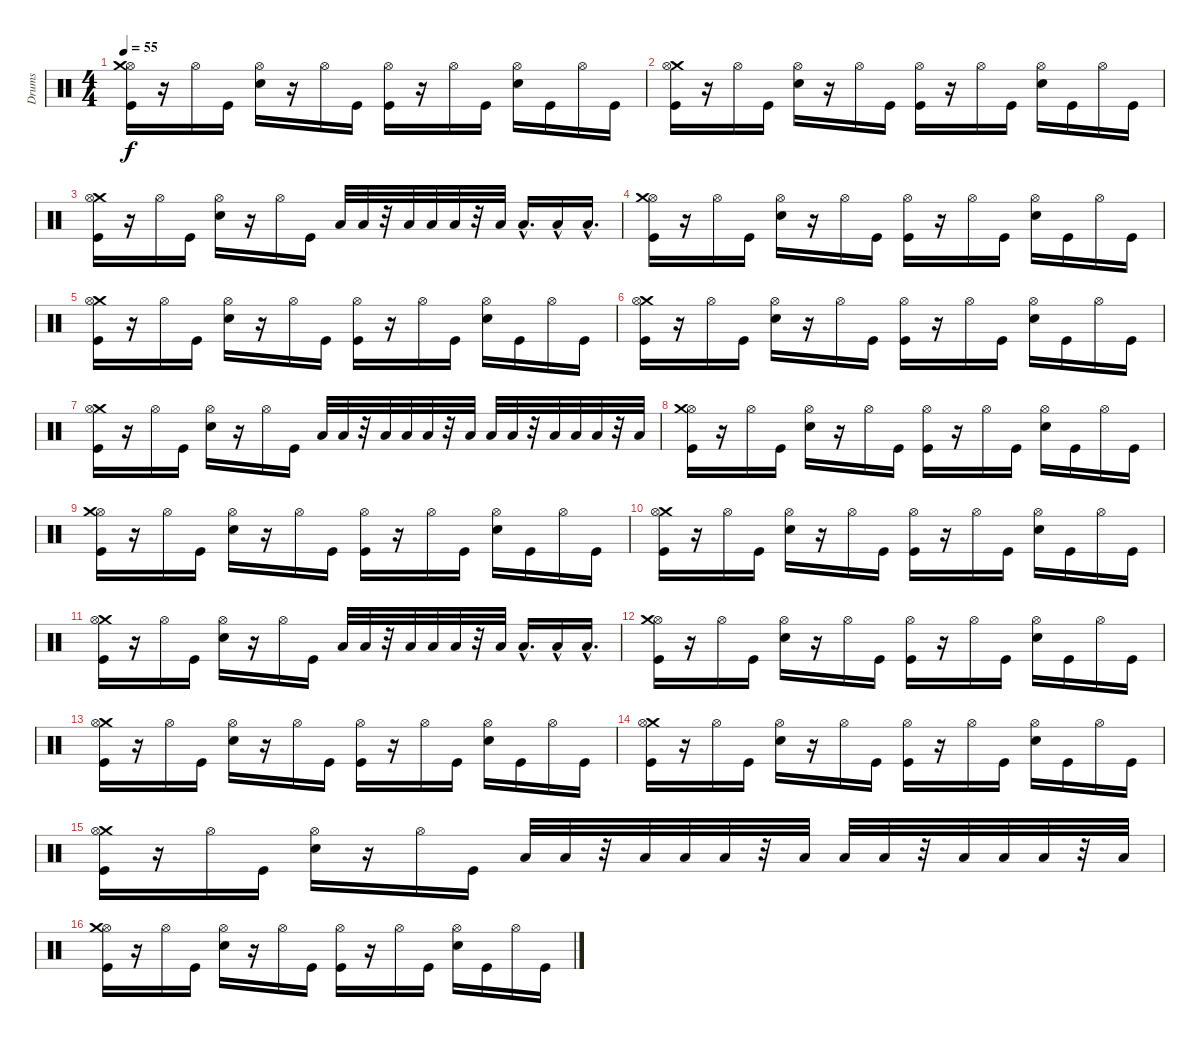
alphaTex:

\track ("Drums" "Drums") {instrument percussion}
\staff {score}
\articulation defaults
\ts (4 4)
\tempo 55
\clef neutral
\ks c
("Hi-Hat (open)" "Crash medium (hit)" "Kick (hit)").16{dy f} r.16 "Hi-Hat (open)".16 "Kick (hit)".16 ("Electric Snare (hit)" "Hi-Hat (open)").16 r.16 "Hi-Hat (open)".16 "Kick (hit)".16 ("Hi-Hat (open)" "Kick (hit)").16 r.16 "Hi-Hat (open)".16 "Kick (hit)".16 ("Hi-Hat (open)" "Electric Snare (hit)").16 "Kick (hit)".16 "Hi-Hat (open)".16 "Kick (hit)".16 |
("Crash medium (hit)" "Hi-Hat (open)" "Kick (hit)").16 r.16 "Hi-Hat (open)".16 "Kick (hit)".16 ("Electric Snare (hit)" "Hi-Hat (open)").16 r.16 "Hi-Hat (open)".16 "Kick (hit)".16 ("Kick (hit)" "Hi-Hat (open)").16 r.16 "Hi-Hat (open)".16 "Kick (hit)".16 ("Electric Snare (hit)" "Hi-Hat (open)").16 "Kick (hit)".16 "Hi-Hat (open)".16 "Kick (hit)".16 |
("Kick (hit)" "Crash medium (hit)" "Hi-Hat (open)").16 r.16 "Hi-Hat (open)".16 "Kick (hit)".16 ("Electric Snare (hit)" "Hi-Hat (open)").16 r.16 "Hi-Hat (open)".16 "Kick (hit)".16 "Low Tom (hit)".32 "Low Tom (hit)".32 r.32 "Low Tom (hit)".32 "Low Tom (hit)".32 "Low Tom (hit)".32 r.32 "Low Tom (hit)".32 "Low Tom (hit)"{hac}.16{d} "Low Tom (hit)"{hac}.16 "Low Tom (hit)"{hac}.16{d} |
("Kick (hit)" "Hi-Hat (open)" "Crash medium (hit)").16 r.16 "Hi-Hat (open)".16 "Kick (hit)".16 ("Hi-Hat (open)" "Electric Snare (hit)").16 r.16 "Hi-Hat (open)".16 "Kick (hit)".16 ("Hi-Hat (open)" "Kick (hit)").16 r.16 "Hi-Hat (open)".16 "Kick (hit)".16 ("Electric Snare (hit)" "Hi-Hat (open)").16 "Kick (hit)".16 "Hi-Hat (open)".16 "Kick (hit)".16 |
("Crash medium (hit)" "Hi-Hat (open)" "Kick (hit)").16 r.16 "Hi-Hat (open)".16 "Kick (hit)".16 ("Electric Snare (hit)" "Hi-Hat (open)").16 r.16 "Hi-Hat (open)".16 "Kick (hit)".16 ("Kick (hit)" "Hi-Hat (open)").16 r.16 "Hi-Hat (open)".16 "Kick (hit)".16 ("Hi-Hat (open)" "Electric Snare (hit)").16 "Kick (hit)".16 "Hi-Hat (open)".16 "Kick (hit)".16 |
("Crash medium (hit)" "Hi-Hat (open)" "Kick (hit)").16 r.16 "Hi-Hat (open)".16 "Kick (hit)".16 ("Hi-Hat (open)" "Electric Snare (hit)").16 r.16 "Hi-Hat (open)".16 "Kick (hit)".16 ("Hi-Hat (open)" "Kick (hit)").16 r.16 "Hi-Hat (open)".16 "Kick (hit)".16 ("Electric Snare (hit)" "Hi-Hat (open)").16 "Kick (hit)".16 "Hi-Hat (open)".16 "Kick (hit)".16 |
("Crash medium (hit)" "Kick (hit)" "Hi-Hat (open)").16 r.16 "Hi-Hat (open)".16 "Kick (hit)".16 ("Hi-Hat (open)" "Electric Snare (hit)").16 r.16 "Hi-Hat (open)".16 "Kick (hit)".16 "Low Floor Tom (hit)".32 "Low Tom (hit)".32 r.32 "Low Tom (hit)".32 "Low Tom (hit)".32 "Low Tom (hit)".32 r.32 "Low Tom (hit)".32 "Low Floor Tom (hit)".32 "Low Tom (hit)".32 r.32 "Low Tom (hit)".32 "Low Tom (hit)".32 "Low Tom (hit)".32 r.32 "Low Tom (hit)".32 |
("Kick (hit)" "Hi-Hat (open)" "Crash medium (hit)").16 r.16 "Hi-Hat (open)".16 "Kick (hit)".16 ("Hi-Hat (open)" "Electric Snare (hit)").16 r.16 "Hi-Hat (open)".16 "Kick (hit)".16 ("Kick (hit)" "Hi-Hat (open)").16 r.16 "Hi-Hat (open)".16 "Kick (hit)".16 ("Electric Snare (hit)" "Hi-Hat (open)").16 "Kick (hit)".16 "Hi-Hat (open)".16 "Kick (hit)".16 |
("Hi-Hat (open)" "Crash medium (hit)" "Kick (hit)").16 r.16 "Hi-Hat (open)".16 "Kick (hit)".16 ("Electric Snare (hit)" "Hi-Hat (open)").16 r.16 "Hi-Hat (open)".16 "Kick (hit)".16 ("Hi-Hat (open)" "Kick (hit)").16 r.16 "Hi-Hat (open)".16 "Kick (hit)".16 ("Hi-Hat (open)" "Electric Snare (hit)").16 "Kick (hit)".16 "Hi-Hat (open)".16 "Kick (hit)".16 |
("Crash medium (hit)" "Hi-Hat (open)" "Kick (hit)").16 r.16 "Hi-Hat (open)".16 "Kick (hit)".16 ("Electric Snare (hit)" "Hi-Hat (open)").16 r.16 "Hi-Hat (open)".16 "Kick (hit)".16 ("Kick (hit)" "Hi-Hat (open)").16 r.16 "Hi-Hat (open)".16 "Kick (hit)".16 ("Electric Snare (hit)" "Hi-Hat (open)").16 "Kick (hit)".16 "Hi-Hat (open)".16 "Kick (hit)".16 |
("Kick (hit)" "Crash medium (hit)" "Hi-Hat (open)").16 r.16 "Hi-Hat (open)".16 "Kick (hit)".16 ("Electric Snare (hit)" "Hi-Hat (open)").16 r.16 "Hi-Hat (open)".16 "Kick (hit)".16 "Low Tom (hit)".32 "Low Tom (hit)".32 r.32 "Low Tom (hit)".32 "Low Tom (hit)".32 "Low Tom (hit)".32 r.32 "Low Tom (hit)".32 "Low Tom (hit)"{hac}.16{d} "Low Tom (hit)"{hac}.16 "Low Tom (hit)"{hac}.16{d} |
("Kick (hit)" "Hi-Hat (open)" "Crash medium (hit)").16 r.16 "Hi-Hat (open)".16 "Kick (hit)".16 ("Hi-Hat (open)" "Electric Snare (hit)").16 r.16 "Hi-Hat (open)".16 "Kick (hit)".16 ("Hi-Hat (open)" "Kick (hit)").16 r.16 "Hi-Hat (open)".16 "Kick (hit)".16 ("Electric Snare (hit)" "Hi-Hat (open)").16 "Kick (hit)".16 "Hi-Hat (open)".16 "Kick (hit)".16 |
("Crash medium (hit)" "Hi-Hat (open)" "Kick (hit)").16 r.16 "Hi-Hat (open)".16 "Kick (hit)".16 ("Electric Snare (hit)" "Hi-Hat (open)").16 r.16 "Hi-Hat (open)".16 "Kick (hit)".16 ("Kick (hit)" "Hi-Hat (open)").16 r.16 "Hi-Hat (open)".16 "Kick (hit)".16 ("Hi-Hat (open)" "Electric Snare (hit)").16 "Kick (hit)".16 "Hi-Hat (open)".16 "Kick (hit)".16 |
("Crash medium (hit)" "Hi-Hat (open)" "Kick (hit)").16 r.16 "Hi-Hat (open)".16 "Kick (hit)".16 ("Hi-Hat (open)" "Electric Snare (hit)").16 r.16 "Hi-Hat (open)".16 "Kick (hit)".16 ("Hi-Hat (open)" "Kick (hit)").16 r.16 "Hi-Hat (open)".16 "Kick (hit)".16 ("Electric Snare (hit)" "Hi-Hat (open)").16 "Kick (hit)".16 "Hi-Hat (open)".16 "Kick (hit)".16 |
("Crash medium (hit)" "Kick (hit)" "Hi-Hat (open)").16 r.16 "Hi-Hat (open)".16 "Kick (hit)".16 ("Hi-Hat (open)" "Electric Snare (hit)").16 r.16 "Hi-Hat (open)".16 "Kick (hit)".16 "Low Floor Tom (hit)".32 "Low Tom (hit)".32 r.32 "Low Tom (hit)".32 "Low Tom (hit)".32 "Low Tom (hit)".32 r.32 "Low Tom (hit)".32 "Low Floor Tom (hit)".32 "Low Tom (hit)".32 r.32 "Low Tom (hit)".32 "Low Tom (hit)".32 "Low Tom (hit)".32 r.32 "Low Tom (hit)".32 |
("Kick (hit)" "Hi-Hat (open)" "Crash medium (hit)").16 r.16 "Hi-Hat (open)".16 "Kick (hit)".16 ("Hi-Hat (open)" "Electric Snare (hit)").16 r.16 "Hi-Hat (open)".16 "Kick (hit)".16 ("Hi-Hat (open)" "Kick (hit)").16 r.16 "Hi-Hat (open)".16 "Kick (hit)".16 ("Electric Snare (hit)" "Hi-Hat (open)").16 "Kick (hit)".16 "Hi-Hat (open)".16 "Kick (hit)".16
